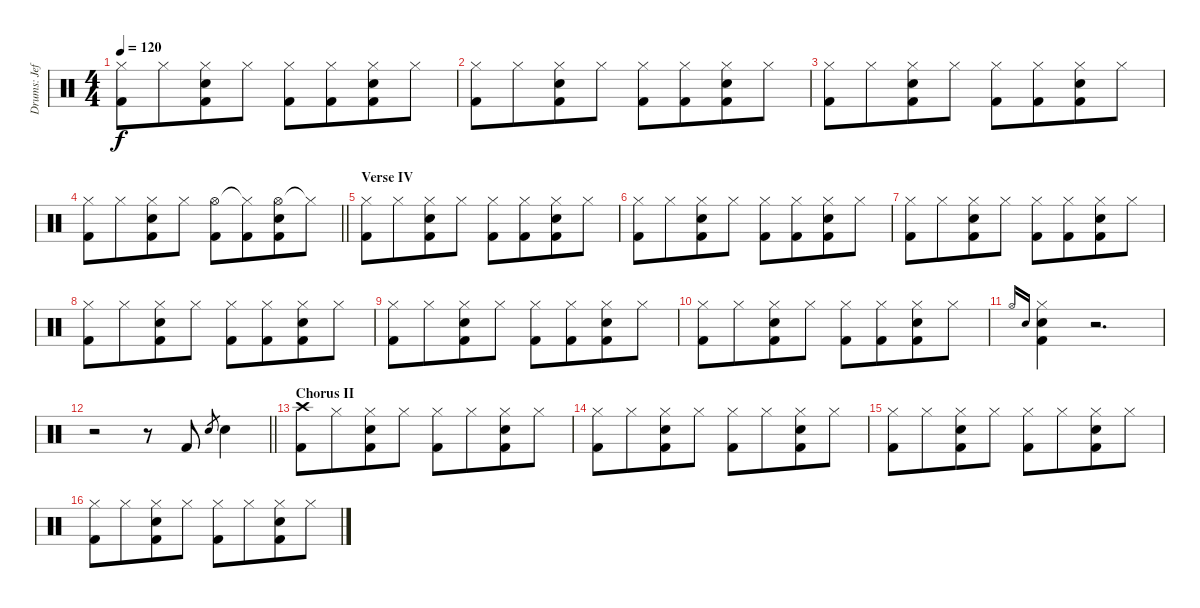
\track ("Drums: Jeff" "Drums: Jef") {instrument percussion}
\staff {score}
\articulation defaults
\ts (4 4)
\tempo 120
\clef neutral
\ks c
("Hi-Hat (closed)" "Kick (hit) 2").8{dy f} "Hi-Hat (closed)".8{beam merge} ("Hi-Hat (closed)" "Electric Snare (hit)" "Kick (hit) 2").8 "Hi-Hat (closed)".8 ("Hi-Hat (closed)" "Kick (hit) 2").8 ("Hi-Hat (closed)" "Kick (hit) 2").8{beam merge} ("Hi-Hat (closed)" "Electric Snare (hit)" "Kick (hit) 2").8 "Hi-Hat (closed)".8 |
("Hi-Hat (closed)" "Kick (hit) 2").8 "Hi-Hat (closed)".8{beam merge} ("Hi-Hat (closed)" "Electric Snare (hit)" "Kick (hit) 2").8 "Hi-Hat (closed)".8 ("Hi-Hat (closed)" "Kick (hit) 2").8 ("Hi-Hat (closed)" "Kick (hit) 2").8{beam merge} ("Hi-Hat (closed)" "Electric Snare (hit)" "Kick (hit) 2").8 "Hi-Hat (closed)".8 |
("Hi-Hat (closed)" "Kick (hit) 2").8 "Hi-Hat (closed)".8{beam merge} ("Hi-Hat (closed)" "Electric Snare (hit)" "Kick (hit) 2").8 "Hi-Hat (closed)".8 ("Hi-Hat (closed)" "Kick (hit) 2").8 ("Hi-Hat (closed)" "Kick (hit) 2").8{beam merge} ("Hi-Hat (closed)" "Electric Snare (hit)" "Kick (hit) 2").8 "Hi-Hat (closed)".8 |
\barLineRight lightlight
("Hi-Hat (closed)" "Kick (hit) 2").8 "Hi-Hat (closed)".8{beam merge} ("Hi-Hat (closed)" "Electric Snare (hit)" "Kick (hit) 2").8 "Hi-Hat (closed)".8 ("Hi-Hat (open)" "Kick (hit) 2").8 ("Hi-Hat (closed)"{t} "Kick (hit) 2").8{beam merge} ("Hi-Hat (open)" "Electric Snare (hit)" "Kick (hit) 2").8 "Hi-Hat (closed)"{t}.8 |
\section ("" "Verse IV")
("Hi-Hat (closed)" "Kick (hit) 2").8 "Hi-Hat (closed)".8{beam merge} ("Hi-Hat (closed)" "Electric Snare (hit)" "Kick (hit) 2").8 "Hi-Hat (closed)".8 ("Hi-Hat (closed)" "Kick (hit) 2").8 ("Hi-Hat (closed)" "Kick (hit) 2").8{beam merge} ("Hi-Hat (closed)" "Electric Snare (hit)" "Kick (hit) 2").8 "Hi-Hat (closed)".8 |
("Hi-Hat (closed)" "Kick (hit) 2").8 "Hi-Hat (closed)".8{beam merge} ("Hi-Hat (closed)" "Electric Snare (hit)" "Kick (hit) 2").8 "Hi-Hat (closed)".8 ("Hi-Hat (closed)" "Kick (hit) 2").8 ("Hi-Hat (closed)" "Kick (hit) 2").8{beam merge} ("Hi-Hat (closed)" "Electric Snare (hit)" "Kick (hit) 2").8 "Hi-Hat (closed)".8 |
("Hi-Hat (closed)" "Kick (hit) 2").8 "Hi-Hat (closed)".8{beam merge} ("Hi-Hat (closed)" "Electric Snare (hit)" "Kick (hit) 2").8 "Hi-Hat (closed)".8 ("Hi-Hat (closed)" "Kick (hit) 2").8 ("Hi-Hat (closed)" "Kick (hit) 2").8{beam merge} ("Hi-Hat (closed)" "Electric Snare (hit)" "Kick (hit) 2").8 "Hi-Hat (closed)".8 |
("Hi-Hat (closed)" "Kick (hit) 2").8 "Hi-Hat (closed)".8{beam merge} ("Hi-Hat (closed)" "Electric Snare (hit)" "Kick (hit) 2").8 "Hi-Hat (closed)".8 ("Hi-Hat (closed)" "Kick (hit) 2").8 ("Hi-Hat (closed)" "Kick (hit) 2").8{beam merge} ("Hi-Hat (closed)" "Electric Snare (hit)" "Kick (hit) 2").8 "Hi-Hat (closed)".8 |
("Hi-Hat (closed)" "Kick (hit) 2").8 "Hi-Hat (closed)".8{beam merge} ("Hi-Hat (closed)" "Electric Snare (hit)" "Kick (hit) 2").8 "Hi-Hat (closed)".8 ("Hi-Hat (closed)" "Kick (hit) 2").8 ("Hi-Hat (closed)" "Kick (hit) 2").8{beam merge} ("Hi-Hat (closed)" "Electric Snare (hit)" "Kick (hit) 2").8 "Hi-Hat (closed)".8 |
("Hi-Hat (closed)" "Kick (hit) 2").8 "Hi-Hat (closed)".8{beam merge} ("Hi-Hat (closed)" "Electric Snare (hit)" "Kick (hit) 2").8 "Hi-Hat (closed)".8 ("Hi-Hat (closed)" "Kick (hit) 2").8 ("Hi-Hat (closed)" "Kick (hit) 2").8{beam merge} ("Hi-Hat (closed)" "Electric Snare (hit)" "Kick (hit) 2").8 "Hi-Hat (closed)".8 |
"Hi-Hat (open)".16{gr onbeat} "Electric Snare (hit)".16{gr onbeat} ("Hi-Hat (closed)" "Snare (hit) 2" "Kick (hit) 2").4 r.2{d} |
\barLineRight lightlight
r.2 r.8 "Kick (hit) 2".8 "Electric Snare (hit)".8{gr} "Snare (hit) 2".4 |
\section ("" "Chorus II")
("Crash high (hit)" "Kick (hit) 2").8 "Hi-Hat (closed)".8{beam merge} ("Hi-Hat (closed)" "Electric Snare (hit)" "Kick (hit) 2").8 "Hi-Hat (closed)".8 ("Hi-Hat (closed)" "Kick (hit) 2").8 "Hi-Hat (closed)".8{beam merge} ("Hi-Hat (closed)" "Electric Snare (hit)" "Kick (hit) 2").8 "Hi-Hat (closed)".8 |
("Hi-Hat (closed)" "Kick (hit) 2").8 "Hi-Hat (closed)".8{beam merge} ("Hi-Hat (closed)" "Electric Snare (hit)" "Kick (hit) 2").8 "Hi-Hat (closed)".8 ("Hi-Hat (closed)" "Kick (hit) 2").8 "Hi-Hat (closed)".8{beam merge} ("Hi-Hat (closed)" "Electric Snare (hit)" "Kick (hit) 2").8 "Hi-Hat (closed)".8 |
("Hi-Hat (closed)" "Kick (hit) 2").8 "Hi-Hat (closed)".8{beam merge} ("Hi-Hat (closed)" "Electric Snare (hit)" "Kick (hit) 2").8 "Hi-Hat (closed)".8 ("Hi-Hat (closed)" "Kick (hit) 2").8 "Hi-Hat (closed)".8{beam merge} ("Hi-Hat (closed)" "Electric Snare (hit)" "Kick (hit) 2").8 "Hi-Hat (closed)".8 |
("Hi-Hat (closed)" "Kick (hit) 2").8 "Hi-Hat (closed)".8{beam merge} ("Hi-Hat (closed)" "Electric Snare (hit)" "Kick (hit) 2").8 "Hi-Hat (closed)".8 ("Hi-Hat (closed)" "Kick (hit) 2").8 "Hi-Hat (closed)".8{beam merge} ("Hi-Hat (closed)" "Electric Snare (hit)" "Kick (hit) 2").8 "Hi-Hat (closed)".8
